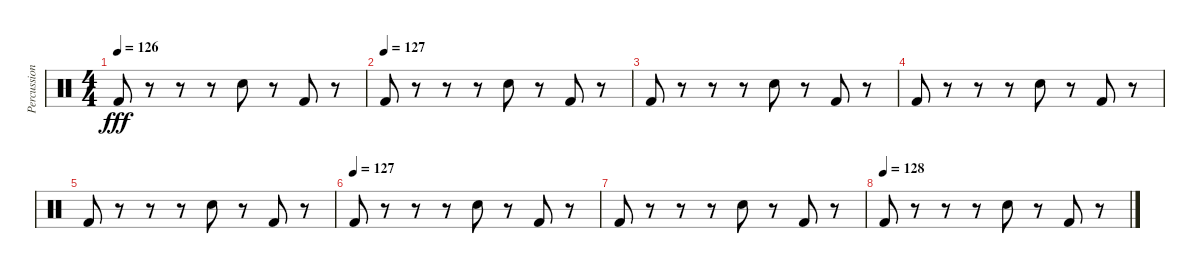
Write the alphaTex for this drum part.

\track ("Percussion" "Percussion") {instrument percussion}
\staff {score}
\articulation defaults
\ts (4 4)
\tempo 126
\clef neutral
\ks c "Kick (hit) 2".8{dy fff}
r.8 r.8 r.8 "Electric Snare (hit)".8 r.8 "Kick (hit) 2".8 r.8 |
\tempo (127)
"Kick (hit) 2".8 r.8 r.8 r.8 "Electric Snare (hit)".8 r.8 "Kick (hit) 2".8 r.8 |
"Kick (hit) 2".8 r.8 r.8 r.8 "Electric Snare (hit)".8 r.8 "Kick (hit) 2".8 r.8 |
"Kick (hit) 2".8 r.8 r.8 r.8 "Electric Snare (hit)".8 r.8 "Kick (hit) 2".8 r.8 |
"Kick (hit) 2".8{volume 0} r.8 r.8 r.8 "Electric Snare (hit)".8 r.8 "Kick (hit) 2".8 r.8 |
\tempo (127)
"Kick (hit) 2".8 r.8 r.8 r.8 "Electric Snare (hit)".8 r.8 "Kick (hit) 2".8 r.8 |
"Kick (hit) 2".8 r.8 r.8 r.8 "Electric Snare (hit)".8 r.8 "Kick (hit) 2".8 r.8 |
\tempo (128)
"Kick (hit) 2".8 r.8 r.8 r.8 "Electric Snare (hit)".8 r.8 "Kick (hit) 2".8 r.8
